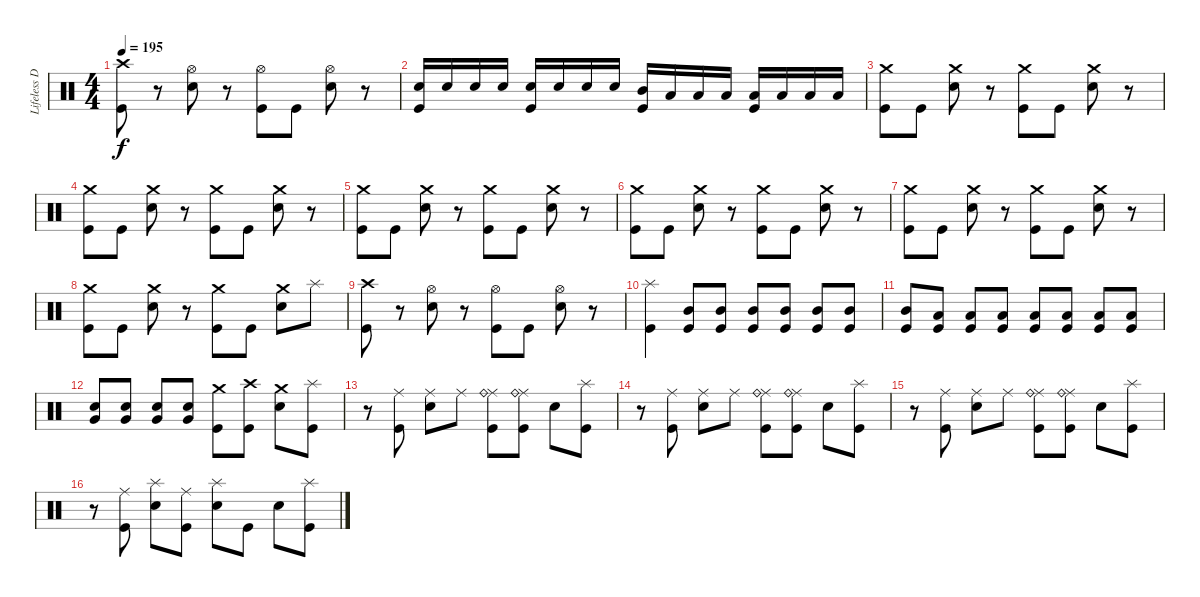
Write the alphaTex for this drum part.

\track ("Lifeless Drums" "Lifeless D") {instrument percussion}
\staff {score}
\articulation defaults
\ts (4 4)
\tempo 195
\clef neutral
\ks c
("Crash high (hit)" "Kick (hit)").8{dy f} r.8 ("Hi-Hat (open)" "Electric Snare (hit)").8 r.8 ("Hi-Hat (open)" "Kick (hit)").8 "Kick (hit)".8 ("Hi-Hat (open)" "Electric Snare (hit)").8 r.8 |
("Electric Snare (hit)" "Kick (hit)").16 "Electric Snare (hit)".16 "Electric Snare (hit)".16 "Electric Snare (hit)".16 ("Electric Snare (hit)" "Kick (hit)").16 "Electric Snare (hit)".16 "Electric Snare (hit)".16 "Electric Snare (hit)".16 ("Mid Tom (hit)" "Kick (hit)").16 "Low Tom (hit)".16 "Low Tom (hit)".16 "Low Tom (hit)".16 ("Low Tom (hit)" "Kick (hit)").16 "Low Tom (hit)".16 "Low Tom (hit)".16 "Low Tom (hit)".16 |
("Crash medium (hit)" "Kick (hit)").8 "Kick (hit)".8 ("Crash medium (hit)" "Electric Snare (hit)").8 r.8 ("Crash medium (hit)" "Kick (hit)").8 "Kick (hit)".8 ("Crash medium (hit)" "Electric Snare (hit)").8 r.8 |
("Crash medium (hit)" "Kick (hit)").8 "Kick (hit)".8 ("Crash medium (hit)" "Electric Snare (hit)").8 r.8 ("Crash medium (hit)" "Kick (hit)").8 "Kick (hit)".8 ("Crash medium (hit)" "Electric Snare (hit)").8 r.8 |
("Crash medium (hit)" "Kick (hit)").8 "Kick (hit)".8 ("Crash medium (hit)" "Electric Snare (hit)").8 r.8 ("Crash medium (hit)" "Kick (hit)").8 "Kick (hit)".8 ("Crash medium (hit)" "Electric Snare (hit)").8 r.8 |
("Crash medium (hit)" "Kick (hit)").8 "Kick (hit)".8 ("Crash medium (hit)" "Electric Snare (hit)").8 r.8 ("Crash medium (hit)" "Kick (hit)").8 "Kick (hit)".8 ("Crash medium (hit)" "Electric Snare (hit)").8 r.8 |
("Crash medium (hit)" "Kick (hit)").8 "Kick (hit)".8 ("Crash medium (hit)" "Electric Snare (hit)").8 r.8 ("Crash medium (hit)" "Kick (hit)").8 "Kick (hit)".8 ("Crash medium (hit)" "Electric Snare (hit)").8 r.8 |
("Crash medium (hit)" "Kick (hit)").8 "Kick (hit)".8 ("Crash medium (hit)" "Electric Snare (hit)").8 r.8 ("Crash medium (hit)" "Kick (hit)").8 "Kick (hit)".8 ("Crash medium (hit)" "Electric Snare (hit)").8 "Splash (hit)".8 |
("Crash high (hit)" "Kick (hit)").8 r.8 ("Hi-Hat (open)" "Electric Snare (hit)").8 r.8 ("Hi-Hat (open)" "Kick (hit)").8 "Kick (hit)".8 ("Hi-Hat (open)" "Electric Snare (hit)").8 r.8 |
("Splash (hit)" "Kick (hit)").4 ("Mid Tom (hit)" "Kick (hit)").8 ("Mid Tom (hit)" "Kick (hit)").8 ("Mid Tom (hit)" "Kick (hit)").8 ("Mid Tom (hit)" "Kick (hit)").8 ("Mid Tom (hit)" "Kick (hit)").8 ("Mid Tom (hit)" "Kick (hit)").8 |
("Mid Tom (hit)" "Kick (hit)").8 ("Low Tom (hit)" "Kick (hit)").8 ("Low Tom (hit)" "Kick (hit)").8 ("Low Tom (hit)" "Kick (hit)").8 ("Low Tom (hit)" "Kick (hit)").8 ("Low Tom (hit)" "Kick (hit)").8 ("Low Tom (hit)" "Kick (hit)").8 ("Low Tom (hit)" "Kick (hit)").8 |
("Very Low Tom (hit)" "Electric Snare (hit)").8 ("Very Low Tom (hit)" "Electric Snare (hit)").8 ("Very Low Tom (hit)" "Electric Snare (hit)").8 ("Very Low Tom (hit)" "Electric Snare (hit)").8 ("Crash medium (hit)" "Kick (hit)").8 ("Crash high (hit)" "Kick (hit)").8 ("Crash medium (hit)" "Electric Snare (hit)").8 ("Splash (hit)" "Kick (hit)").8 |
r.8 ("Ride (middle)" "Kick (hit)").8 ("Ride (middle)" "Electric Snare (hit)").8 "Ride (middle)".8 ("Ride (middle)" "Ride (bell)" "Kick (hit)").8 ("Ride (middle)" "Ride (bell)" "Kick (hit)").8 "Electric Snare (hit)".8 ("Splash (hit)" "Kick (hit)").8 |
r.8 ("Ride (middle)" "Kick (hit)").8 ("Ride (middle)" "Electric Snare (hit)").8 "Ride (middle)".8 ("Ride (middle)" "Ride (bell)" "Kick (hit)").8 ("Ride (middle)" "Ride (bell)" "Kick (hit)").8 "Electric Snare (hit)".8 ("Splash (hit)" "Kick (hit)").8 |
r.8 ("Ride (middle)" "Kick (hit)").8 ("Ride (middle)" "Electric Snare (hit)").8 "Ride (middle)".8 ("Ride (middle)" "Ride (bell)" "Kick (hit)").8 ("Ride (middle)" "Ride (bell)" "Kick (hit)").8 "Electric Snare (hit)".8 ("Splash (hit)" "Kick (hit)").8 |
r.8 ("Ride (middle)" "Kick (hit)").8 ("Splash (hit)" "Electric Snare (hit)").8 ("Ride (middle)" "Kick (hit)").8 ("Splash (hit)" "Electric Snare (hit)").8 "Kick (hit)".8 "Electric Snare (hit)".8 ("Splash (hit)" "Kick (hit)").8
